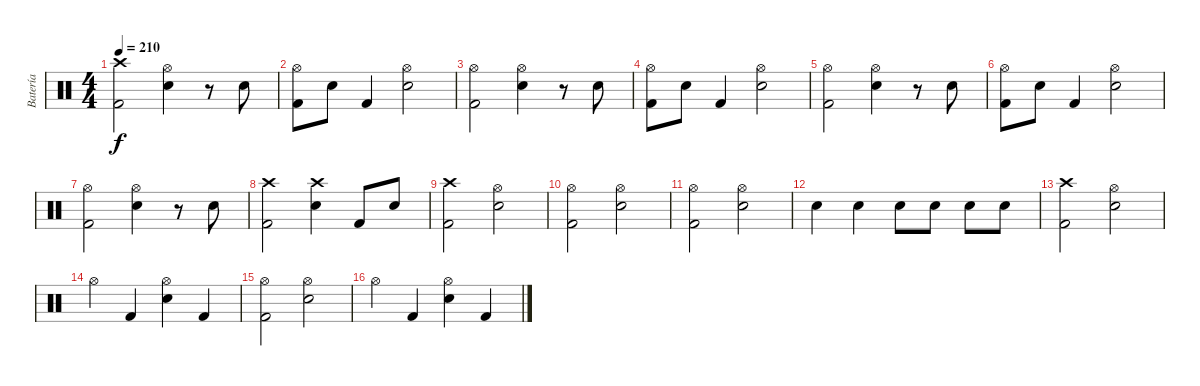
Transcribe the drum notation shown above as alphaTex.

\track ("Batería" "Batería") {instrument percussion}
\staff {score}
\articulation defaults
\ts (4 4)
\tempo 210
\clef neutral
\ks c
("Crash high (hit)" "Kick (hit) 2").2{dy f} ("Hi-Hat (open)" "Snare (hit) 2").4 r.8 "Snare (hit) 2".8 |
("Hi-Hat (open)" "Kick (hit) 2").8 "Snare (hit) 2".8 "Kick (hit) 2".4 ("Hi-Hat (open)" "Snare (hit) 2").2 |
("Hi-Hat (open)" "Kick (hit) 2").2 ("Hi-Hat (open)" "Snare (hit) 2").4 r.8 "Snare (hit) 2".8 |
("Hi-Hat (open)" "Kick (hit) 2").8 "Snare (hit) 2".8 "Kick (hit) 2".4 ("Hi-Hat (open)" "Snare (hit) 2").2 |
("Hi-Hat (open)" "Kick (hit) 2").2 ("Hi-Hat (open)" "Snare (hit) 2").4 r.8 "Snare (hit) 2".8 |
("Hi-Hat (open)" "Kick (hit) 2").8 "Snare (hit) 2".8 "Kick (hit) 2".4 ("Hi-Hat (open)" "Snare (hit) 2").2 |
("Hi-Hat (open)" "Kick (hit) 2").2 ("Hi-Hat (open)" "Snare (hit) 2").4 r.8 "Snare (hit) 2".8 |
("Crash high (hit)" "Kick (hit) 2").2 ("Crash high (hit)" "Snare (hit) 2").4 "Kick (hit) 2".8 "Snare (hit) 2".8 |
("Crash high (hit)" "Kick (hit) 2").2 ("Hi-Hat (open)" "Snare (hit) 2").2 |
("Hi-Hat (open)" "Kick (hit) 2").2 ("Hi-Hat (open)" "Snare (hit) 2").2 |
("Hi-Hat (open)" "Kick (hit) 2").2 ("Hi-Hat (open)" "Snare (hit) 2").2 |
"Snare (hit) 2".4 "Snare (hit) 2".4 "Snare (hit) 2".8 "Snare (hit) 2".8 "Snare (hit) 2".8 "Snare (hit) 2".8 |
("Crash high (hit)" "Kick (hit) 2").2 ("Hi-Hat (open)" "Snare (hit) 2").2 |
"Hi-Hat (open)".4 "Kick (hit) 2".4 ("Hi-Hat (open)" "Snare (hit) 2").4 "Kick (hit) 2".4 |
("Hi-Hat (open)" "Kick (hit) 2").2 ("Hi-Hat (open)" "Snare (hit) 2").2 |
"Hi-Hat (open)".4 "Kick (hit) 2".4 ("Hi-Hat (open)" "Snare (hit) 2").4 "Kick (hit) 2".4
